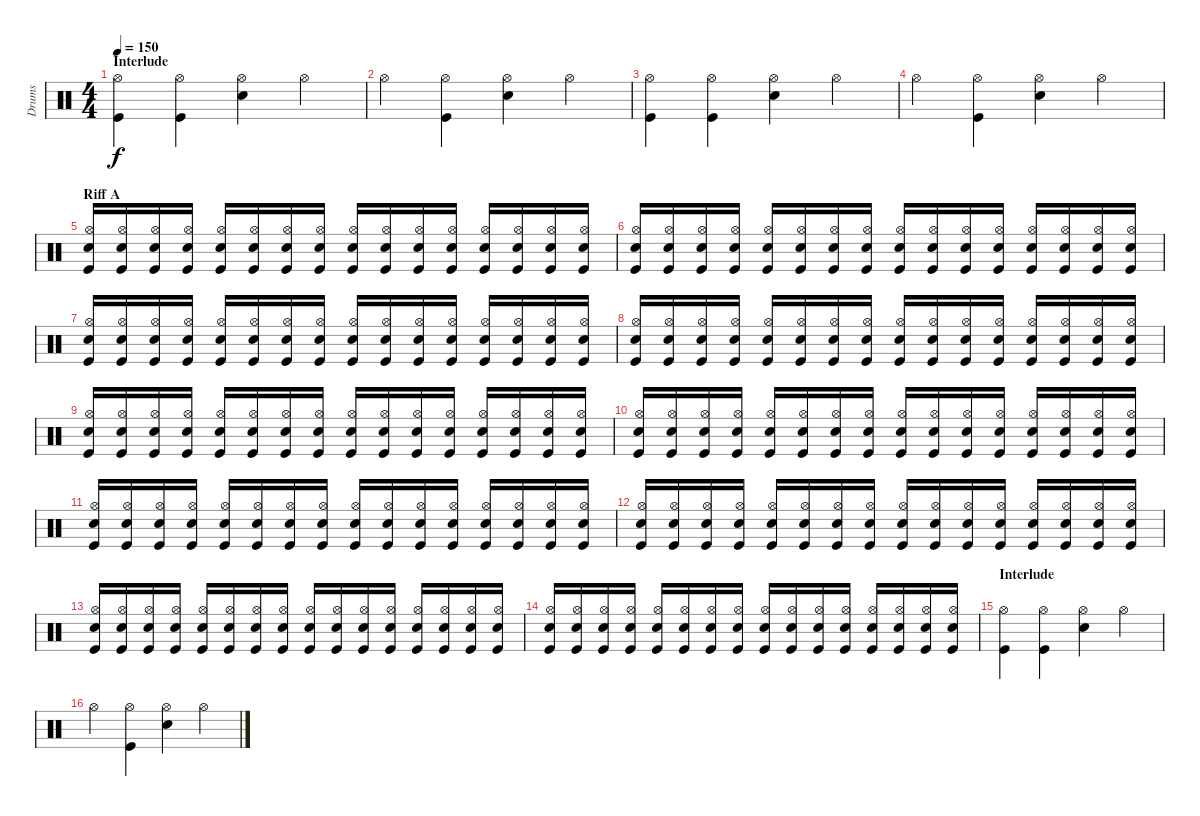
\track ("Drums" "Drums") {instrument percussion}
\staff {score}
\articulation defaults
\ts (4 4)
\section ("" "Interlude")
\tempo 150
\clef neutral
\ks c
("Kick (hit)" "Hi-Hat (open)").4{dy f} ("Kick (hit)" "Hi-Hat (open)").4 ("Electric Snare (hit)" "Hi-Hat (open)").4 "Hi-Hat (open)".4 |
"Hi-Hat (open)".4 ("Kick (hit)" "Hi-Hat (open)").4 ("Electric Snare (hit)" "Hi-Hat (open)").4 "Hi-Hat (open)".4 |
("Kick (hit)" "Hi-Hat (open)").4 ("Kick (hit)" "Hi-Hat (open)").4 ("Electric Snare (hit)" "Hi-Hat (open)").4 "Hi-Hat (open)".4 |
"Hi-Hat (open)".4 ("Kick (hit)" "Hi-Hat (open)").4 ("Electric Snare (hit)" "Hi-Hat (open)").4 "Hi-Hat (open)".4 |
\section ("" "Riff A")
("Kick (hit)" "Electric Snare (hit)" "Hi-Hat (open)").16 ("Kick (hit)" "Electric Snare (hit)" "Hi-Hat (open)").16 ("Kick (hit)" "Electric Snare (hit)" "Hi-Hat (open)").16 ("Kick (hit)" "Electric Snare (hit)" "Hi-Hat (open)").16 ("Kick (hit)" "Electric Snare (hit)" "Hi-Hat (open)").16 ("Kick (hit)" "Electric Snare (hit)" "Hi-Hat (open)").16 ("Kick (hit)" "Electric Snare (hit)" "Hi-Hat (open)").16 ("Kick (hit)" "Electric Snare (hit)" "Hi-Hat (open)").16 ("Kick (hit)" "Electric Snare (hit)" "Hi-Hat (open)").16 ("Kick (hit)" "Electric Snare (hit)" "Hi-Hat (open)").16 ("Kick (hit)" "Electric Snare (hit)" "Hi-Hat (open)").16 ("Kick (hit)" "Electric Snare (hit)" "Hi-Hat (open)").16 ("Kick (hit)" "Electric Snare (hit)" "Hi-Hat (open)").16 ("Kick (hit)" "Electric Snare (hit)" "Hi-Hat (open)").16 ("Kick (hit)" "Electric Snare (hit)" "Hi-Hat (open)").16 ("Kick (hit)" "Electric Snare (hit)" "Hi-Hat (open)").16 |
("Kick (hit)" "Electric Snare (hit)" "Hi-Hat (open)").16 ("Kick (hit)" "Electric Snare (hit)" "Hi-Hat (open)").16 ("Kick (hit)" "Electric Snare (hit)" "Hi-Hat (open)").16 ("Kick (hit)" "Electric Snare (hit)" "Hi-Hat (open)").16 ("Kick (hit)" "Electric Snare (hit)" "Hi-Hat (open)").16 ("Kick (hit)" "Electric Snare (hit)" "Hi-Hat (open)").16 ("Kick (hit)" "Electric Snare (hit)" "Hi-Hat (open)").16 ("Kick (hit)" "Electric Snare (hit)" "Hi-Hat (open)").16 ("Kick (hit)" "Electric Snare (hit)" "Hi-Hat (open)").16 ("Kick (hit)" "Electric Snare (hit)" "Hi-Hat (open)").16 ("Kick (hit)" "Electric Snare (hit)" "Hi-Hat (open)").16 ("Kick (hit)" "Electric Snare (hit)" "Hi-Hat (open)").16 ("Kick (hit)" "Electric Snare (hit)" "Hi-Hat (open)").16 ("Kick (hit)" "Electric Snare (hit)" "Hi-Hat (open)").16 ("Kick (hit)" "Electric Snare (hit)" "Hi-Hat (open)").16 ("Kick (hit)" "Electric Snare (hit)" "Hi-Hat (open)").16 |
("Kick (hit)" "Electric Snare (hit)" "Hi-Hat (open)").16 ("Kick (hit)" "Electric Snare (hit)" "Hi-Hat (open)").16 ("Kick (hit)" "Electric Snare (hit)" "Hi-Hat (open)").16 ("Kick (hit)" "Electric Snare (hit)" "Hi-Hat (open)").16 ("Kick (hit)" "Electric Snare (hit)" "Hi-Hat (open)").16 ("Kick (hit)" "Electric Snare (hit)" "Hi-Hat (open)").16 ("Kick (hit)" "Electric Snare (hit)" "Hi-Hat (open)").16 ("Kick (hit)" "Electric Snare (hit)" "Hi-Hat (open)").16 ("Kick (hit)" "Electric Snare (hit)" "Hi-Hat (open)").16 ("Kick (hit)" "Electric Snare (hit)" "Hi-Hat (open)").16 ("Kick (hit)" "Electric Snare (hit)" "Hi-Hat (open)").16 ("Kick (hit)" "Electric Snare (hit)" "Hi-Hat (open)").16 ("Kick (hit)" "Electric Snare (hit)" "Hi-Hat (open)").16 ("Kick (hit)" "Electric Snare (hit)" "Hi-Hat (open)").16 ("Kick (hit)" "Electric Snare (hit)" "Hi-Hat (open)").16 ("Kick (hit)" "Electric Snare (hit)" "Hi-Hat (open)").16 |
("Kick (hit)" "Electric Snare (hit)" "Hi-Hat (open)").16 ("Kick (hit)" "Electric Snare (hit)" "Hi-Hat (open)").16 ("Kick (hit)" "Electric Snare (hit)" "Hi-Hat (open)").16 ("Kick (hit)" "Electric Snare (hit)" "Hi-Hat (open)").16 ("Kick (hit)" "Electric Snare (hit)" "Hi-Hat (open)").16 ("Kick (hit)" "Electric Snare (hit)" "Hi-Hat (open)").16 ("Kick (hit)" "Electric Snare (hit)" "Hi-Hat (open)").16 ("Kick (hit)" "Electric Snare (hit)" "Hi-Hat (open)").16 ("Kick (hit)" "Electric Snare (hit)" "Hi-Hat (open)").16 ("Kick (hit)" "Electric Snare (hit)" "Hi-Hat (open)").16 ("Kick (hit)" "Electric Snare (hit)" "Hi-Hat (open)").16 ("Kick (hit)" "Electric Snare (hit)" "Hi-Hat (open)").16 ("Kick (hit)" "Electric Snare (hit)" "Hi-Hat (open)").16 ("Kick (hit)" "Electric Snare (hit)" "Hi-Hat (open)").16 ("Kick (hit)" "Electric Snare (hit)" "Hi-Hat (open)").16 ("Kick (hit)" "Electric Snare (hit)" "Hi-Hat (open)").16 |
("Kick (hit)" "Electric Snare (hit)" "Hi-Hat (open)").16 ("Kick (hit)" "Electric Snare (hit)" "Hi-Hat (open)").16 ("Kick (hit)" "Electric Snare (hit)" "Hi-Hat (open)").16 ("Kick (hit)" "Electric Snare (hit)" "Hi-Hat (open)").16 ("Kick (hit)" "Electric Snare (hit)" "Hi-Hat (open)").16 ("Kick (hit)" "Electric Snare (hit)" "Hi-Hat (open)").16 ("Kick (hit)" "Electric Snare (hit)" "Hi-Hat (open)").16 ("Kick (hit)" "Electric Snare (hit)" "Hi-Hat (open)").16 ("Kick (hit)" "Electric Snare (hit)" "Hi-Hat (open)").16 ("Kick (hit)" "Electric Snare (hit)" "Hi-Hat (open)").16 ("Kick (hit)" "Electric Snare (hit)" "Hi-Hat (open)").16 ("Kick (hit)" "Electric Snare (hit)" "Hi-Hat (open)").16 ("Kick (hit)" "Electric Snare (hit)" "Hi-Hat (open)").16 ("Kick (hit)" "Electric Snare (hit)" "Hi-Hat (open)").16 ("Kick (hit)" "Electric Snare (hit)" "Hi-Hat (open)").16 ("Kick (hit)" "Electric Snare (hit)" "Hi-Hat (open)").16 |
("Kick (hit)" "Electric Snare (hit)" "Hi-Hat (open)").16 ("Kick (hit)" "Electric Snare (hit)" "Hi-Hat (open)").16 ("Kick (hit)" "Electric Snare (hit)" "Hi-Hat (open)").16 ("Kick (hit)" "Electric Snare (hit)" "Hi-Hat (open)").16 ("Kick (hit)" "Electric Snare (hit)" "Hi-Hat (open)").16 ("Kick (hit)" "Electric Snare (hit)" "Hi-Hat (open)").16 ("Kick (hit)" "Electric Snare (hit)" "Hi-Hat (open)").16 ("Kick (hit)" "Electric Snare (hit)" "Hi-Hat (open)").16 ("Kick (hit)" "Electric Snare (hit)" "Hi-Hat (open)").16 ("Kick (hit)" "Electric Snare (hit)" "Hi-Hat (open)").16 ("Kick (hit)" "Electric Snare (hit)" "Hi-Hat (open)").16 ("Kick (hit)" "Electric Snare (hit)" "Hi-Hat (open)").16 ("Kick (hit)" "Electric Snare (hit)" "Hi-Hat (open)").16 ("Kick (hit)" "Electric Snare (hit)" "Hi-Hat (open)").16 ("Kick (hit)" "Electric Snare (hit)" "Hi-Hat (open)").16 ("Kick (hit)" "Electric Snare (hit)" "Hi-Hat (open)").16 |
("Kick (hit)" "Electric Snare (hit)" "Hi-Hat (open)").16 ("Kick (hit)" "Electric Snare (hit)" "Hi-Hat (open)").16 ("Kick (hit)" "Electric Snare (hit)" "Hi-Hat (open)").16 ("Kick (hit)" "Electric Snare (hit)" "Hi-Hat (open)").16 ("Kick (hit)" "Electric Snare (hit)" "Hi-Hat (open)").16 ("Kick (hit)" "Electric Snare (hit)" "Hi-Hat (open)").16 ("Kick (hit)" "Electric Snare (hit)" "Hi-Hat (open)").16 ("Kick (hit)" "Electric Snare (hit)" "Hi-Hat (open)").16 ("Kick (hit)" "Electric Snare (hit)" "Hi-Hat (open)").16 ("Kick (hit)" "Electric Snare (hit)" "Hi-Hat (open)").16 ("Kick (hit)" "Electric Snare (hit)" "Hi-Hat (open)").16 ("Kick (hit)" "Electric Snare (hit)" "Hi-Hat (open)").16 ("Kick (hit)" "Electric Snare (hit)" "Hi-Hat (open)").16 ("Kick (hit)" "Electric Snare (hit)" "Hi-Hat (open)").16 ("Kick (hit)" "Electric Snare (hit)" "Hi-Hat (open)").16 ("Kick (hit)" "Electric Snare (hit)" "Hi-Hat (open)").16 |
("Kick (hit)" "Electric Snare (hit)" "Hi-Hat (open)").16 ("Kick (hit)" "Electric Snare (hit)" "Hi-Hat (open)").16 ("Kick (hit)" "Electric Snare (hit)" "Hi-Hat (open)").16 ("Kick (hit)" "Electric Snare (hit)" "Hi-Hat (open)").16 ("Kick (hit)" "Electric Snare (hit)" "Hi-Hat (open)").16 ("Kick (hit)" "Electric Snare (hit)" "Hi-Hat (open)").16 ("Kick (hit)" "Electric Snare (hit)" "Hi-Hat (open)").16 ("Kick (hit)" "Electric Snare (hit)" "Hi-Hat (open)").16 ("Kick (hit)" "Electric Snare (hit)" "Hi-Hat (open)").16 ("Kick (hit)" "Electric Snare (hit)" "Hi-Hat (open)").16 ("Kick (hit)" "Electric Snare (hit)" "Hi-Hat (open)").16 ("Kick (hit)" "Electric Snare (hit)" "Hi-Hat (open)").16 ("Kick (hit)" "Electric Snare (hit)" "Hi-Hat (open)").16 ("Kick (hit)" "Electric Snare (hit)" "Hi-Hat (open)").16 ("Kick (hit)" "Electric Snare (hit)" "Hi-Hat (open)").16 ("Kick (hit)" "Electric Snare (hit)" "Hi-Hat (open)").16 |
("Kick (hit)" "Electric Snare (hit)" "Hi-Hat (open)").16 ("Kick (hit)" "Electric Snare (hit)" "Hi-Hat (open)").16 ("Kick (hit)" "Electric Snare (hit)" "Hi-Hat (open)").16 ("Kick (hit)" "Electric Snare (hit)" "Hi-Hat (open)").16 ("Kick (hit)" "Electric Snare (hit)" "Hi-Hat (open)").16 ("Kick (hit)" "Electric Snare (hit)" "Hi-Hat (open)").16 ("Kick (hit)" "Electric Snare (hit)" "Hi-Hat (open)").16 ("Kick (hit)" "Electric Snare (hit)" "Hi-Hat (open)").16 ("Kick (hit)" "Electric Snare (hit)" "Hi-Hat (open)").16 ("Kick (hit)" "Electric Snare (hit)" "Hi-Hat (open)").16 ("Kick (hit)" "Electric Snare (hit)" "Hi-Hat (open)").16 ("Kick (hit)" "Electric Snare (hit)" "Hi-Hat (open)").16 ("Kick (hit)" "Electric Snare (hit)" "Hi-Hat (open)").16 ("Kick (hit)" "Electric Snare (hit)" "Hi-Hat (open)").16 ("Kick (hit)" "Electric Snare (hit)" "Hi-Hat (open)").16 ("Kick (hit)" "Electric Snare (hit)" "Hi-Hat (open)").16 |
("Kick (hit)" "Electric Snare (hit)" "Hi-Hat (open)").16 ("Kick (hit)" "Electric Snare (hit)" "Hi-Hat (open)").16 ("Kick (hit)" "Electric Snare (hit)" "Hi-Hat (open)").16 ("Kick (hit)" "Electric Snare (hit)" "Hi-Hat (open)").16 ("Kick (hit)" "Electric Snare (hit)" "Hi-Hat (open)").16 ("Kick (hit)" "Electric Snare (hit)" "Hi-Hat (open)").16 ("Kick (hit)" "Electric Snare (hit)" "Hi-Hat (open)").16 ("Kick (hit)" "Electric Snare (hit)" "Hi-Hat (open)").16 ("Kick (hit)" "Electric Snare (hit)" "Hi-Hat (open)").16 ("Kick (hit)" "Electric Snare (hit)" "Hi-Hat (open)").16 ("Kick (hit)" "Electric Snare (hit)" "Hi-Hat (open)").16 ("Kick (hit)" "Electric Snare (hit)" "Hi-Hat (open)").16 ("Kick (hit)" "Electric Snare (hit)" "Hi-Hat (open)").16 ("Kick (hit)" "Electric Snare (hit)" "Hi-Hat (open)").16 ("Kick (hit)" "Electric Snare (hit)" "Hi-Hat (open)").16 ("Kick (hit)" "Electric Snare (hit)" "Hi-Hat (open)").16 |
\section ("" "Interlude")
("Kick (hit)" "Hi-Hat (open)").4 ("Kick (hit)" "Hi-Hat (open)").4 ("Electric Snare (hit)" "Hi-Hat (open)").4 "Hi-Hat (open)".4 |
"Hi-Hat (open)".4 ("Kick (hit)" "Hi-Hat (open)").4 ("Electric Snare (hit)" "Hi-Hat (open)").4 "Hi-Hat (open)".4
